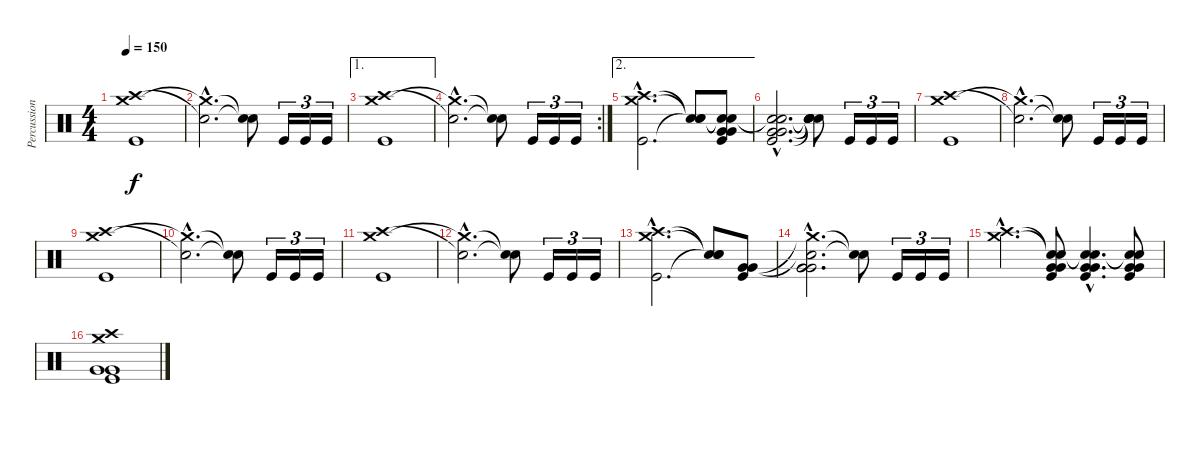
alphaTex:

\track ("Percussioni" "Percussion") {instrument percussion}
\staff {score}
\articulation defaults
\ts (4 4)
\tempo 150
\clef neutral
\ks c
("Crash medium (hit)" "Crash high (hit)" "Kick (hit)").1{dy f} |
("Crash medium (hit)"{hac t} "Snare (hit)"{hac t}).2{d} ("Snare (hit)"{t} "Snare (hit)"{t}).8 "Kick (hit)".16{tu (3 2)} "Kick (hit)".16{tu (3 2)} "Kick (hit)".16{tu (3 2)} |
\ae 1
("Crash medium (hit)" "Crash high (hit)" "Kick (hit)").1 |
\rc 2
("Crash medium (hit)"{hac t} "Snare (hit)"{hac t}).2{d} ("Snare (hit)"{t} "Snare (hit)"{t}).8 "Kick (hit)".16{tu (3 2)} "Kick (hit)".16{tu (3 2)} "Kick (hit)".16{tu (3 2)} |
\ae 2
("Crash medium (hit)"{hac} "Crash high (hit)"{hac} "Kick (hit)"{hac}).2{d} ("Snare (hit)"{t} "Snare (hit)"{t} "Snare (hit)"{t}).8 ("Snare (hit)"{t} "Snare (hit)"{t} "Very Low Tom (hit)" "Very Low Tom (hit)" "Kick (hit)").8 |
("Snare (hit)"{hac t} "Snare (hit)"{hac t} "Very Low Tom (hit)"{hac} "Very Low Tom (hit)"{hac} "Kick (hit)"{hac}).2{d} ("Snare (hit)"{t} "Snare (hit)"{t} "Snare (hit)"{t} "Snare (hit)"{t} "Snare (hit)"{t}).8 "Kick (hit)".16{tu (3 2)} "Kick (hit)".16{tu (3 2)} "Kick (hit)".16{tu (3 2)} |
("Crash medium (hit)" "Crash high (hit)" "Kick (hit)").1 |
("Crash medium (hit)"{hac t} "Snare (hit)"{hac t}).2{d} ("Snare (hit)"{t} "Snare (hit)"{t}).8 "Kick (hit)".16{tu (3 2)} "Kick (hit)".16{tu (3 2)} "Kick (hit)".16{tu (3 2)} |
("Crash medium (hit)" "Crash high (hit)" "Kick (hit)").1 |
("Crash medium (hit)"{hac t} "Snare (hit)"{hac t}).2{d} ("Snare (hit)"{t} "Snare (hit)"{t}).8 "Kick (hit)".16{tu (3 2)} "Kick (hit)".16{tu (3 2)} "Kick (hit)".16{tu (3 2)} |
("Crash medium (hit)" "Crash high (hit)" "Kick (hit)").1 |
("Crash medium (hit)"{hac t} "Snare (hit)"{hac t}).2{d} ("Snare (hit)"{t} "Snare (hit)"{t}).8 "Kick (hit)".16{tu (3 2)} "Kick (hit)".16{tu (3 2)} "Kick (hit)".16{tu (3 2)} |
("Crash medium (hit)"{hac} "Crash high (hit)"{hac} "Kick (hit)"{hac}).2{d} ("Snare (hit)"{t} "Snare (hit)"{t} "Snare (hit)"{t}).8 ("Very Low Tom (hit)" "Very Low Tom (hit)" "Kick (hit)").8 |
("Crash medium (hit)"{hac t} "Snare (hit)"{hac t} "Very Low Tom (hit)"{hac} "Very Low Tom (hit)"{hac} "Very Low Tom (hit)"{hac}).2{d} ("Snare (hit)"{t} "Snare (hit)"{t}).8 "Kick (hit)".16{tu (3 2)} "Kick (hit)".16{tu (3 2)} "Kick (hit)".16{tu (3 2)} |
("Crash medium (hit)"{hac} "Crash high (hit)"{hac}).4{d} ("Snare (hit)"{t} "Snare (hit)"{t} "Very Low Tom (hit)" "Very Low Tom (hit)" "Kick (hit)").8 ("Snare (hit)"{hac t} "Snare (hit)"{hac t} "Very Low Tom (hit)"{hac} "Very Low Tom (hit)"{hac} "Kick (hit)"{hac}).4{d} ("Snare (hit)"{t} "Snare (hit)"{t} "Very Low Tom (hit)" "Very Low Tom (hit)" "Kick (hit)").8 |
("Crash high (hit)" "Crash medium (hit)" "Very Low Tom (hit)" "Very Low Tom (hit)" "Kick (hit)").1
